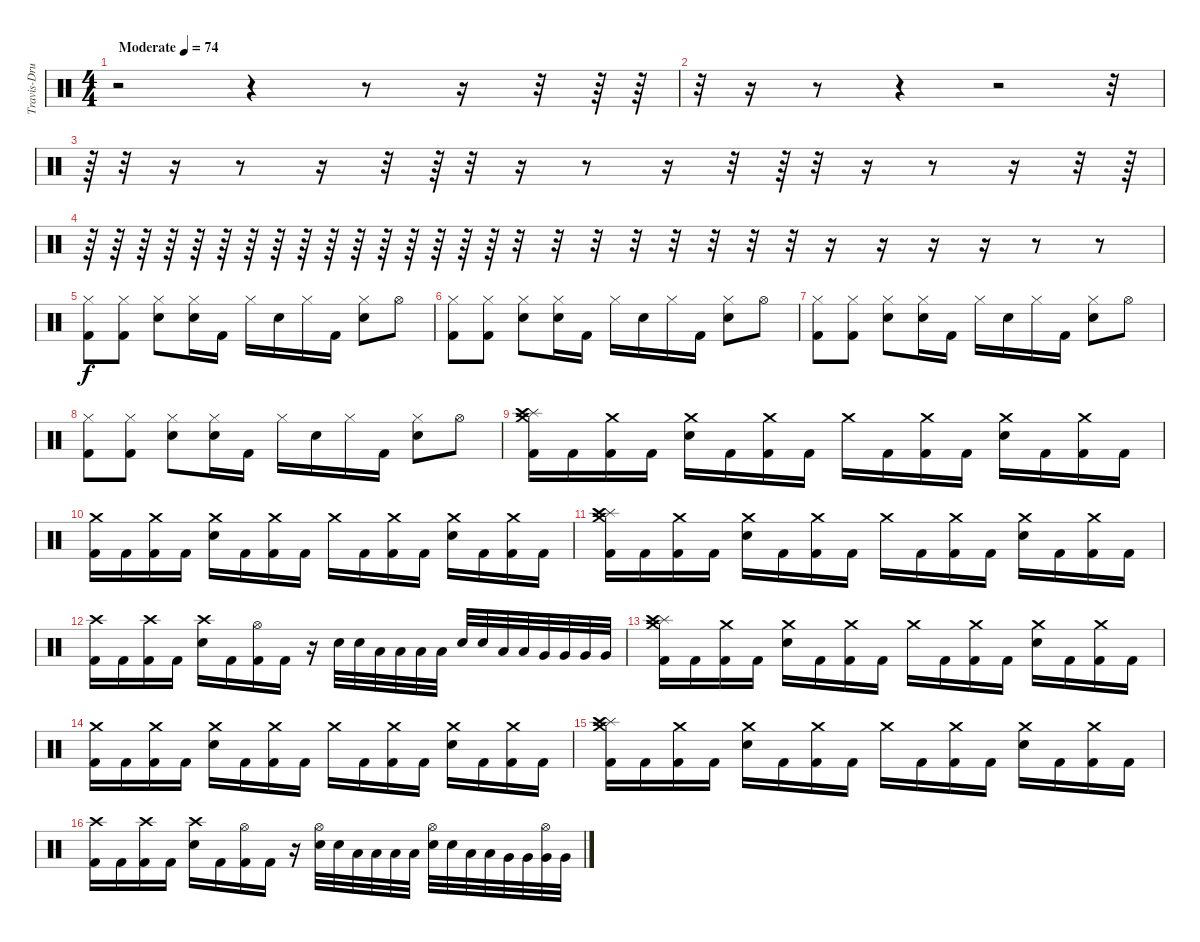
\track ("Travis-Drums" "Travis-Dru") {instrument percussion}
\staff {score}
\articulation defaults
\ts (4 4)
\tempo (74 "Moderate")
\clef neutral
\ks c
r.2{dy f} r.4 r.8 r.16 r.32 r.64 r.64 |
r.32 r.16 r.8 r.4 r.2 r.32 |
r.64 r.32 r.16 r.8 r.16 r.32 r.64 r.32 r.16 r.8 r.16 r.32 r.64 r.32 r.16 r.8 r.16 r.32 r.64 |
r.64 r.64 r.64 r.64 r.64 r.64 r.64 r.64 r.64 r.64 r.64 r.64 r.64 r.64 r.64 r.64 r.32 r.32 r.32 r.32 r.32 r.32 r.32 r.32 r.16 r.16 r.16 r.16 r.8 r.8 |
("Hi-Hat (closed)" "Kick (hit) 2").8 ("Hi-Hat (closed)" "Kick (hit) 2").8 ("Hi-Hat (closed)" "Electric Snare (hit)").8 ("Hi-Hat (closed)" "Electric Snare (hit)").16 "Kick (hit) 2".16 "Hi-Hat (closed)".16 "Electric Snare (hit)".16 "Hi-Hat (closed)".16 "Kick (hit) 2".16 ("Hi-Hat (closed)" "Electric Snare (hit)").8 "Hi-Hat (open)".8 |
("Hi-Hat (closed)" "Kick (hit) 2").8 ("Hi-Hat (closed)" "Kick (hit) 2").8 ("Hi-Hat (closed)" "Electric Snare (hit)").8 ("Hi-Hat (closed)" "Electric Snare (hit)").16 "Kick (hit) 2".16 "Hi-Hat (closed)".16 "Electric Snare (hit)".16 "Hi-Hat (closed)".16 "Kick (hit) 2".16 ("Hi-Hat (closed)" "Electric Snare (hit)").8 "Hi-Hat (open)".8 |
("Hi-Hat (closed)" "Kick (hit) 2").8 ("Hi-Hat (closed)" "Kick (hit) 2").8 ("Hi-Hat (closed)" "Electric Snare (hit)").8 ("Hi-Hat (closed)" "Electric Snare (hit)").16 "Kick (hit) 2".16 "Hi-Hat (closed)".16 "Electric Snare (hit)".16 "Hi-Hat (closed)".16 "Kick (hit) 2".16 ("Hi-Hat (closed)" "Electric Snare (hit)").8 "Hi-Hat (open)".8 |
("Hi-Hat (closed)" "Kick (hit) 2").8 ("Hi-Hat (closed)" "Kick (hit) 2").8 ("Hi-Hat (closed)" "Electric Snare (hit)").8 ("Hi-Hat (closed)" "Electric Snare (hit)").16 "Kick (hit) 2".16 "Hi-Hat (closed)".16 "Electric Snare (hit)".16 "Hi-Hat (closed)".16 "Kick (hit) 2".16 ("Hi-Hat (closed)" "Electric Snare (hit)").8 "Hi-Hat (open)".8 |
("Splash (hit)" "Crash high (hit)" "Crash medium (hit)" "Kick (hit) 2").16 "Kick (hit) 2".16 ("Crash medium (hit)" "Kick (hit) 2").16 "Kick (hit) 2".16 ("Crash medium (hit)" "Snare (hit) 2").16 "Kick (hit) 2".16 ("Crash medium (hit)" "Kick (hit) 2").16 "Kick (hit) 2".16 "Crash medium (hit)".16 "Kick (hit) 2".16 ("Crash medium (hit)" "Kick (hit) 2").16 "Kick (hit) 2".16 ("Crash medium (hit)" "Snare (hit) 2").16 "Kick (hit) 2".16 ("Crash medium (hit)" "Kick (hit) 2").16 "Kick (hit) 2".16 |
("Crash medium (hit)" "Kick (hit) 2").16 "Kick (hit) 2".16 ("Crash medium (hit)" "Kick (hit) 2").16 "Kick (hit) 2".16 ("Crash medium (hit)" "Snare (hit) 2").16 "Kick (hit) 2".16 ("Crash medium (hit)" "Kick (hit) 2").16 "Kick (hit) 2".16 "Crash medium (hit)".16 "Kick (hit) 2".16 ("Crash medium (hit)" "Kick (hit) 2").16 "Kick (hit) 2".16 ("Crash medium (hit)" "Snare (hit) 2").16 "Kick (hit) 2".16 ("Crash medium (hit)" "Kick (hit) 2").16 "Kick (hit) 2".16 |
("Splash (hit)" "Crash high (hit)" "Crash medium (hit)" "Kick (hit) 2").16 "Kick (hit) 2".16 ("Crash medium (hit)" "Kick (hit) 2").16 "Kick (hit) 2".16 ("Crash medium (hit)" "Snare (hit) 2").16 "Kick (hit) 2".16 ("Crash medium (hit)" "Kick (hit) 2").16 "Kick (hit) 2".16 "Crash medium (hit)".16 "Kick (hit) 2".16 ("Crash medium (hit)" "Kick (hit) 2").16 "Kick (hit) 2".16 ("Crash medium (hit)" "Snare (hit) 2").16 "Kick (hit) 2".16 ("Crash medium (hit)" "Kick (hit) 2").16 "Kick (hit) 2".16 |
("Crash high (hit)" "Kick (hit) 2").16 "Kick (hit) 2".16 ("Crash high (hit)" "Kick (hit) 2").16 "Kick (hit) 2".16 ("Crash high (hit)" "Electric Snare (hit)").16 "Kick (hit) 2".16 ("Hi-Hat (open)" "Kick (hit) 2").16 "Kick (hit) 2".16 r.16 "Electric Snare (hit)".32 "Electric Snare (hit)".32 "Low Tom (hit)".32 "Low Tom (hit)".32 "Low Tom (hit)".32 "Low Tom (hit)".32 "Electric Snare (hit)".32 "Electric Snare (hit)".32 "Low Tom (hit)".32 "Low Tom (hit)".32 "Very Low Tom (hit)".32 "Very Low Tom (hit)".32 "Very Low Tom (hit)".32 "Very Low Tom (hit)".32 |
("Splash (hit)" "Crash high (hit)" "Crash medium (hit)" "Kick (hit) 2").16 "Kick (hit) 2".16 ("Crash medium (hit)" "Kick (hit) 2").16 "Kick (hit) 2".16 ("Crash medium (hit)" "Snare (hit) 2").16 "Kick (hit) 2".16 ("Crash medium (hit)" "Kick (hit) 2").16 "Kick (hit) 2".16 "Crash medium (hit)".16 "Kick (hit) 2".16 ("Crash medium (hit)" "Kick (hit) 2").16 "Kick (hit) 2".16 ("Crash medium (hit)" "Snare (hit) 2").16 "Kick (hit) 2".16 ("Crash medium (hit)" "Kick (hit) 2").16 "Kick (hit) 2".16 |
("Crash medium (hit)" "Kick (hit) 2").16 "Kick (hit) 2".16 ("Crash medium (hit)" "Kick (hit) 2").16 "Kick (hit) 2".16 ("Crash medium (hit)" "Snare (hit) 2").16 "Kick (hit) 2".16 ("Crash medium (hit)" "Kick (hit) 2").16 "Kick (hit) 2".16 "Crash medium (hit)".16 "Kick (hit) 2".16 ("Crash medium (hit)" "Kick (hit) 2").16 "Kick (hit) 2".16 ("Crash medium (hit)" "Snare (hit) 2").16 "Kick (hit) 2".16 ("Crash medium (hit)" "Kick (hit) 2").16 "Kick (hit) 2".16 |
("Splash (hit)" "Crash high (hit)" "Crash medium (hit)" "Kick (hit) 2").16 "Kick (hit) 2".16 ("Crash medium (hit)" "Kick (hit) 2").16 "Kick (hit) 2".16 ("Crash medium (hit)" "Snare (hit) 2").16 "Kick (hit) 2".16 ("Crash medium (hit)" "Kick (hit) 2").16 "Kick (hit) 2".16 "Crash medium (hit)".16 "Kick (hit) 2".16 ("Crash medium (hit)" "Kick (hit) 2").16 "Kick (hit) 2".16 ("Crash medium (hit)" "Snare (hit) 2").16 "Kick (hit) 2".16 ("Crash medium (hit)" "Kick (hit) 2").16 "Kick (hit) 2".16 |
("Crash high (hit)" "Kick (hit) 2").16 "Kick (hit) 2".16 ("Crash high (hit)" "Kick (hit) 2").16 "Kick (hit) 2".16 ("Crash high (hit)" "Snare (hit) 2").16 "Kick (hit) 2".16 ("Hi-Hat (open)" "Kick (hit) 2").16 "Kick (hit) 2".16 r.16 ("Hi-Hat (open)" "Electric Snare (hit)").32 "Electric Snare (hit)".32 "Low Tom (hit)".32 "Low Tom (hit)".32 "Low Tom (hit)".32 "Low Tom (hit)".32 ("Hi-Hat (open)" "Electric Snare (hit)").32 "Electric Snare (hit)".32 "Low Tom (hit)".32 "Low Tom (hit)".32 "Very Low Tom (hit)".32 "Very Low Tom (hit)".32 ("Hi-Hat (open)" "Very Low Tom (hit)").32 "Very Low Tom (hit)".32
